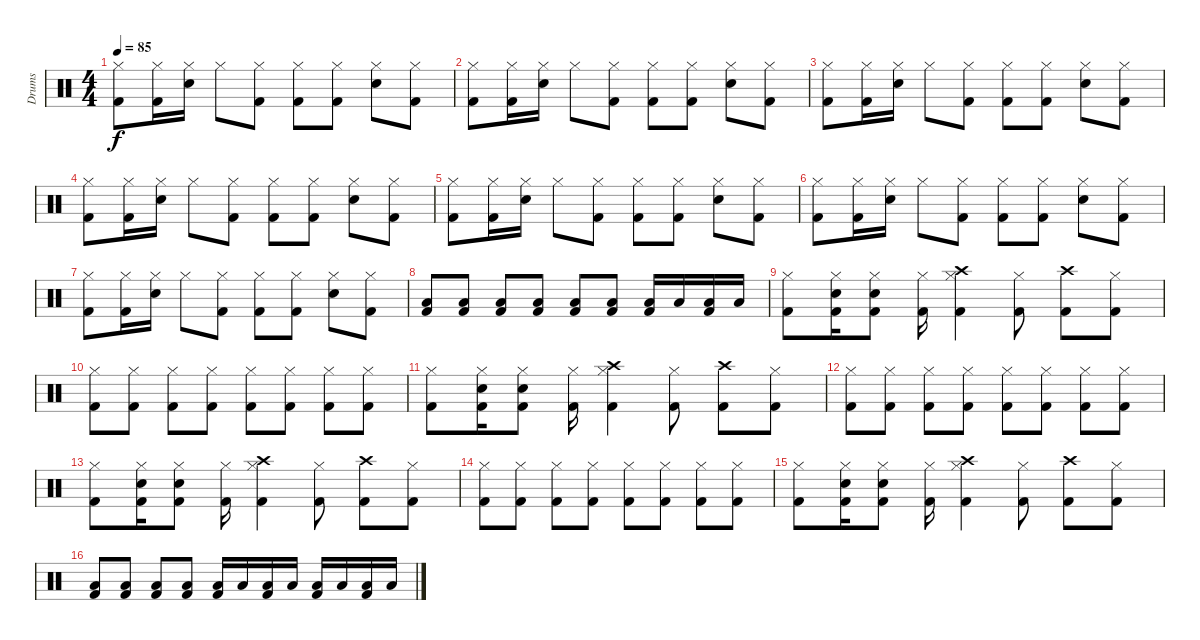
\track ("Drums" "Drums") {instrument percussion}
\staff {score}
\articulation defaults
\ts (4 4)
\tempo 85
\clef neutral
\ks c
("Hi-Hat (closed)" "Kick (hit) 2").8{dy f} ("Hi-Hat (closed)" "Kick (hit) 2").16 ("Snare (hit) 2" "Hi-Hat (closed)").16 "Hi-Hat (closed)".8 ("Hi-Hat (closed)" "Kick (hit) 2").8 ("Hi-Hat (closed)" "Kick (hit) 2").8 ("Hi-Hat (closed)" "Kick (hit) 2").8 ("Snare (hit) 2" "Hi-Hat (closed)").8 ("Hi-Hat (closed)" "Kick (hit) 2").8 |
("Hi-Hat (closed)" "Kick (hit) 2").8 ("Hi-Hat (closed)" "Kick (hit) 2").16 ("Snare (hit) 2" "Hi-Hat (closed)").16 "Hi-Hat (closed)".8 ("Hi-Hat (closed)" "Kick (hit) 2").8 ("Hi-Hat (closed)" "Kick (hit) 2").8 ("Hi-Hat (closed)" "Kick (hit) 2").8 ("Snare (hit) 2" "Hi-Hat (closed)").8 ("Hi-Hat (closed)" "Kick (hit) 2").8 |
("Hi-Hat (closed)" "Kick (hit) 2").8 ("Hi-Hat (closed)" "Kick (hit) 2").16 ("Snare (hit) 2" "Hi-Hat (closed)").16 "Hi-Hat (closed)".8 ("Hi-Hat (closed)" "Kick (hit) 2").8 ("Hi-Hat (closed)" "Kick (hit) 2").8 ("Hi-Hat (closed)" "Kick (hit) 2").8 ("Snare (hit) 2" "Hi-Hat (closed)").8 ("Hi-Hat (closed)" "Kick (hit) 2").8 |
("Hi-Hat (closed)" "Kick (hit) 2").8 ("Hi-Hat (closed)" "Kick (hit) 2").16 ("Snare (hit) 2" "Hi-Hat (closed)").16 "Hi-Hat (closed)".8 ("Hi-Hat (closed)" "Kick (hit) 2").8 ("Hi-Hat (closed)" "Kick (hit) 2").8 ("Hi-Hat (closed)" "Kick (hit) 2").8 ("Snare (hit) 2" "Hi-Hat (closed)").8 ("Hi-Hat (closed)" "Kick (hit) 2").8 |
("Hi-Hat (closed)" "Kick (hit) 2").8 ("Hi-Hat (closed)" "Kick (hit) 2").16 ("Snare (hit) 2" "Hi-Hat (closed)").16 "Hi-Hat (closed)".8 ("Hi-Hat (closed)" "Kick (hit) 2").8 ("Hi-Hat (closed)" "Kick (hit) 2").8 ("Hi-Hat (closed)" "Kick (hit) 2").8 ("Snare (hit) 2" "Hi-Hat (closed)").8 ("Hi-Hat (closed)" "Kick (hit) 2").8 |
("Hi-Hat (closed)" "Kick (hit) 2").8 ("Hi-Hat (closed)" "Kick (hit) 2").16 ("Snare (hit) 2" "Hi-Hat (closed)").16 "Hi-Hat (closed)".8 ("Hi-Hat (closed)" "Kick (hit) 2").8 ("Hi-Hat (closed)" "Kick (hit) 2").8 ("Hi-Hat (closed)" "Kick (hit) 2").8 ("Snare (hit) 2" "Hi-Hat (closed)").8 ("Hi-Hat (closed)" "Kick (hit) 2").8 |
("Hi-Hat (closed)" "Kick (hit) 2").8 ("Hi-Hat (closed)" "Kick (hit) 2").16 ("Snare (hit) 2" "Hi-Hat (closed)").16 "Hi-Hat (closed)".8 ("Hi-Hat (closed)" "Kick (hit) 2").8 ("Hi-Hat (closed)" "Kick (hit) 2").8 ("Hi-Hat (closed)" "Kick (hit) 2").8 ("Snare (hit) 2" "Hi-Hat (closed)").8 ("Hi-Hat (closed)" "Kick (hit) 2").8 |
("Low Tom (hit)" "Kick (hit) 2").8 ("Low Tom (hit)" "Kick (hit) 2").8 ("Low Tom (hit)" "Kick (hit) 2").8 ("Low Tom (hit)" "Kick (hit) 2").8 ("Low Tom (hit)" "Kick (hit) 2").8 ("Low Tom (hit)" "Kick (hit) 2").8 ("Low Tom (hit)" "Kick (hit) 2").16 "Low Tom (hit)".16 ("Low Tom (hit)" "Kick (hit) 2").16 "Low Tom (hit)".16 |
("Hi-Hat (closed)" "Kick (hit) 2").8 ("Hi-Hat (closed)" "Snare (hit) 2" "Kick (hit) 2").16 ("Hi-Hat (closed)" "Snare (hit) 2" "Kick (hit) 2").8 ("Hi-Hat (closed)" "Kick (hit) 2").16 ("Hi-Hat (closed)" "Crash high (hit)" "Kick (hit) 2").4 ("Hi-Hat (closed)" "Kick (hit) 2").8 ("Crash high (hit)" "Kick (hit) 2").8 ("Hi-Hat (closed)" "Kick (hit) 2").8 |
("Hi-Hat (closed)" "Kick (hit) 2").8 ("Hi-Hat (closed)" "Kick (hit) 2").8 ("Hi-Hat (closed)" "Kick (hit) 2").8 ("Hi-Hat (closed)" "Kick (hit) 2").8 ("Hi-Hat (closed)" "Kick (hit) 2").8 ("Hi-Hat (closed)" "Kick (hit) 2").8 ("Hi-Hat (closed)" "Kick (hit) 2").8 ("Hi-Hat (closed)" "Kick (hit) 2").8 |
("Hi-Hat (closed)" "Kick (hit) 2").8 ("Hi-Hat (closed)" "Snare (hit) 2" "Kick (hit) 2").16 ("Hi-Hat (closed)" "Snare (hit) 2" "Kick (hit) 2").8 ("Hi-Hat (closed)" "Kick (hit) 2").16 ("Hi-Hat (closed)" "Crash high (hit)" "Kick (hit) 2").4 ("Hi-Hat (closed)" "Kick (hit) 2").8 ("Crash high (hit)" "Kick (hit) 2").8 ("Hi-Hat (closed)" "Kick (hit) 2").8 |
("Hi-Hat (closed)" "Kick (hit) 2").8 ("Hi-Hat (closed)" "Kick (hit) 2").8 ("Hi-Hat (closed)" "Kick (hit) 2").8 ("Hi-Hat (closed)" "Kick (hit) 2").8 ("Hi-Hat (closed)" "Kick (hit) 2").8 ("Hi-Hat (closed)" "Kick (hit) 2").8 ("Hi-Hat (closed)" "Kick (hit) 2").8 ("Hi-Hat (closed)" "Kick (hit) 2").8 |
("Hi-Hat (closed)" "Kick (hit) 2").8 ("Hi-Hat (closed)" "Snare (hit) 2" "Kick (hit) 2").16 ("Hi-Hat (closed)" "Snare (hit) 2" "Kick (hit) 2").8 ("Hi-Hat (closed)" "Kick (hit) 2").16 ("Hi-Hat (closed)" "Crash high (hit)" "Kick (hit) 2").4 ("Hi-Hat (closed)" "Kick (hit) 2").8 ("Crash high (hit)" "Kick (hit) 2").8 ("Hi-Hat (closed)" "Kick (hit) 2").8 |
("Hi-Hat (closed)" "Kick (hit) 2").8 ("Hi-Hat (closed)" "Kick (hit) 2").8 ("Hi-Hat (closed)" "Kick (hit) 2").8 ("Hi-Hat (closed)" "Kick (hit) 2").8 ("Hi-Hat (closed)" "Kick (hit) 2").8 ("Hi-Hat (closed)" "Kick (hit) 2").8 ("Hi-Hat (closed)" "Kick (hit) 2").8 ("Hi-Hat (closed)" "Kick (hit) 2").8 |
("Hi-Hat (closed)" "Kick (hit) 2").8 ("Hi-Hat (closed)" "Snare (hit) 2" "Kick (hit) 2").16 ("Hi-Hat (closed)" "Snare (hit) 2" "Kick (hit) 2").8 ("Hi-Hat (closed)" "Kick (hit) 2").16 ("Hi-Hat (closed)" "Crash high (hit)" "Kick (hit) 2").4 ("Hi-Hat (closed)" "Kick (hit) 2").8 ("Crash high (hit)" "Kick (hit) 2").8 ("Hi-Hat (closed)" "Kick (hit) 2").8 |
("Low Tom (hit)" "Kick (hit) 2").8 ("Low Tom (hit)" "Kick (hit) 2").8 ("Low Tom (hit)" "Kick (hit) 2").8 ("Low Tom (hit)" "Kick (hit) 2").8 ("Low Tom (hit)" "Kick (hit) 2").16 "Low Tom (hit)".16 ("Low Tom (hit)" "Kick (hit) 2").16 "Low Tom (hit)".16 ("Low Tom (hit)" "Kick (hit) 2").16 "Low Tom (hit)".16 ("Low Tom (hit)" "Kick (hit) 2").16 "Low Tom (hit)".16
